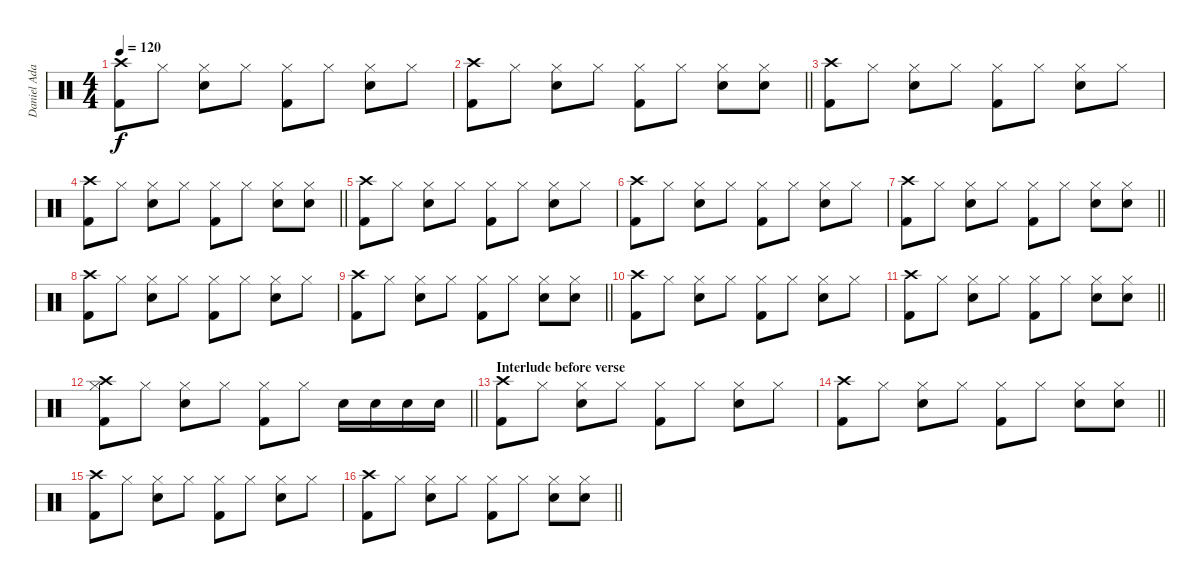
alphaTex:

\track ("Daniel Adair" "Daniel Ada") {instrument percussion}
\staff {score}
\articulation defaults
\ts (4 4)
\tempo 120
\clef neutral
\ks c
("Crash high (hit)" "Kick (hit) 2").8{dy f} "Hi-Hat (closed)".8 ("Hi-Hat (closed)" "Electric Snare (hit)").8 "Hi-Hat (closed)".8 ("Hi-Hat (closed)" "Kick (hit) 2").8 "Hi-Hat (closed)".8 ("Hi-Hat (closed)" "Electric Snare (hit)").8 "Hi-Hat (closed)".8 |
\barLineRight lightlight
("Crash high (hit)" "Kick (hit) 2").8 "Hi-Hat (closed)".8 ("Hi-Hat (closed)" "Electric Snare (hit)").8 "Hi-Hat (closed)".8 ("Hi-Hat (closed)" "Kick (hit) 2").8 "Hi-Hat (closed)".8 ("Hi-Hat (closed)" "Electric Snare (hit)").8 ("Hi-Hat (closed)" "Electric Snare (hit)").8 |
("Crash high (hit)" "Kick (hit) 2").8 "Hi-Hat (closed)".8 ("Hi-Hat (closed)" "Electric Snare (hit)").8 "Hi-Hat (closed)".8 ("Hi-Hat (closed)" "Kick (hit) 2").8 "Hi-Hat (closed)".8 ("Hi-Hat (closed)" "Electric Snare (hit)").8 "Hi-Hat (closed)".8 |
\barLineRight lightlight
("Crash high (hit)" "Kick (hit) 2").8 "Hi-Hat (closed)".8 ("Hi-Hat (closed)" "Electric Snare (hit)").8 "Hi-Hat (closed)".8 ("Hi-Hat (closed)" "Kick (hit) 2").8 "Hi-Hat (closed)".8 ("Hi-Hat (closed)" "Electric Snare (hit)").8 ("Hi-Hat (closed)" "Electric Snare (hit)").8 |
("Crash high (hit)" "Kick (hit) 2").8 "Hi-Hat (closed)".8 ("Hi-Hat (closed)" "Electric Snare (hit)").8 "Hi-Hat (closed)".8 ("Hi-Hat (closed)" "Kick (hit) 2").8 "Hi-Hat (closed)".8 ("Hi-Hat (closed)" "Electric Snare (hit)").8 "Hi-Hat (closed)".8 |
("Crash high (hit)" "Kick (hit) 2").8 "Hi-Hat (closed)".8 ("Hi-Hat (closed)" "Electric Snare (hit)").8 "Hi-Hat (closed)".8 ("Hi-Hat (closed)" "Kick (hit) 2").8 "Hi-Hat (closed)".8 ("Hi-Hat (closed)" "Electric Snare (hit)").8 "Hi-Hat (closed)".8 |
\barLineRight lightlight
("Crash high (hit)" "Kick (hit) 2").8 "Hi-Hat (closed)".8 ("Hi-Hat (closed)" "Electric Snare (hit)").8 "Hi-Hat (closed)".8 ("Hi-Hat (closed)" "Kick (hit) 2").8 "Hi-Hat (closed)".8 ("Hi-Hat (closed)" "Electric Snare (hit)").8 ("Hi-Hat (closed)" "Electric Snare (hit)").8 |
("Crash high (hit)" "Kick (hit) 2").8 "Hi-Hat (closed)".8 ("Hi-Hat (closed)" "Electric Snare (hit)").8 "Hi-Hat (closed)".8 ("Hi-Hat (closed)" "Kick (hit) 2").8 "Hi-Hat (closed)".8 ("Hi-Hat (closed)" "Electric Snare (hit)").8 "Hi-Hat (closed)".8 |
\barLineRight lightlight
("Crash high (hit)" "Kick (hit) 2").8 "Hi-Hat (closed)".8 ("Hi-Hat (closed)" "Electric Snare (hit)").8 "Hi-Hat (closed)".8 ("Hi-Hat (closed)" "Kick (hit) 2").8 "Hi-Hat (closed)".8 ("Hi-Hat (closed)" "Electric Snare (hit)").8 ("Hi-Hat (closed)" "Electric Snare (hit)").8 |
("Crash high (hit)" "Kick (hit) 2").8 "Hi-Hat (closed)".8 ("Hi-Hat (closed)" "Electric Snare (hit)").8 "Hi-Hat (closed)".8 ("Hi-Hat (closed)" "Kick (hit) 2").8 "Hi-Hat (closed)".8 ("Hi-Hat (closed)" "Electric Snare (hit)").8 "Hi-Hat (closed)".8 |
\barLineRight lightlight
("Crash high (hit)" "Kick (hit) 2").8 "Hi-Hat (closed)".8 ("Hi-Hat (closed)" "Electric Snare (hit)").8 "Hi-Hat (closed)".8 ("Hi-Hat (closed)" "Kick (hit) 2").8 "Hi-Hat (closed)".8 ("Hi-Hat (closed)" "Electric Snare (hit)").8 ("Hi-Hat (closed)" "Electric Snare (hit)").8 |
\barLineRight lightlight
("Crash high (hit)" "Hi-Hat (closed)" "Kick (hit) 2").8 "Hi-Hat (closed)".8 ("Hi-Hat (closed)" "Electric Snare (hit)").8 "Hi-Hat (closed)".8 ("Hi-Hat (closed)" "Kick (hit) 2").8 "Hi-Hat (closed)".8 "Electric Snare (hit)".16 "Electric Snare (hit)".16 "Electric Snare (hit)".16 "Electric Snare (hit)".16 |
\section ("" "Interlude before verse")
("Crash high (hit)" "Kick (hit) 2").8 "Hi-Hat (closed)".8 ("Hi-Hat (closed)" "Electric Snare (hit)").8 "Hi-Hat (closed)".8 ("Hi-Hat (closed)" "Kick (hit) 2").8 "Hi-Hat (closed)".8 ("Hi-Hat (closed)" "Electric Snare (hit)").8 "Hi-Hat (closed)".8 |
\barLineRight lightlight
("Crash high (hit)" "Kick (hit) 2").8 "Hi-Hat (closed)".8 ("Hi-Hat (closed)" "Electric Snare (hit)").8 "Hi-Hat (closed)".8 ("Hi-Hat (closed)" "Kick (hit) 2").8 "Hi-Hat (closed)".8 ("Hi-Hat (closed)" "Electric Snare (hit)").8 ("Hi-Hat (closed)" "Electric Snare (hit)").8 |
("Crash high (hit)" "Kick (hit) 2").8 "Hi-Hat (closed)".8 ("Hi-Hat (closed)" "Electric Snare (hit)").8 "Hi-Hat (closed)".8 ("Hi-Hat (closed)" "Kick (hit) 2").8 "Hi-Hat (closed)".8 ("Hi-Hat (closed)" "Electric Snare (hit)").8 "Hi-Hat (closed)".8 |
\barLineRight lightlight
("Crash high (hit)" "Kick (hit) 2").8 "Hi-Hat (closed)".8 ("Hi-Hat (closed)" "Electric Snare (hit)").8 "Hi-Hat (closed)".8 ("Hi-Hat (closed)" "Kick (hit) 2").8 "Hi-Hat (closed)".8 ("Hi-Hat (closed)" "Electric Snare (hit)").8 ("Hi-Hat (closed)" "Electric Snare (hit)").8
